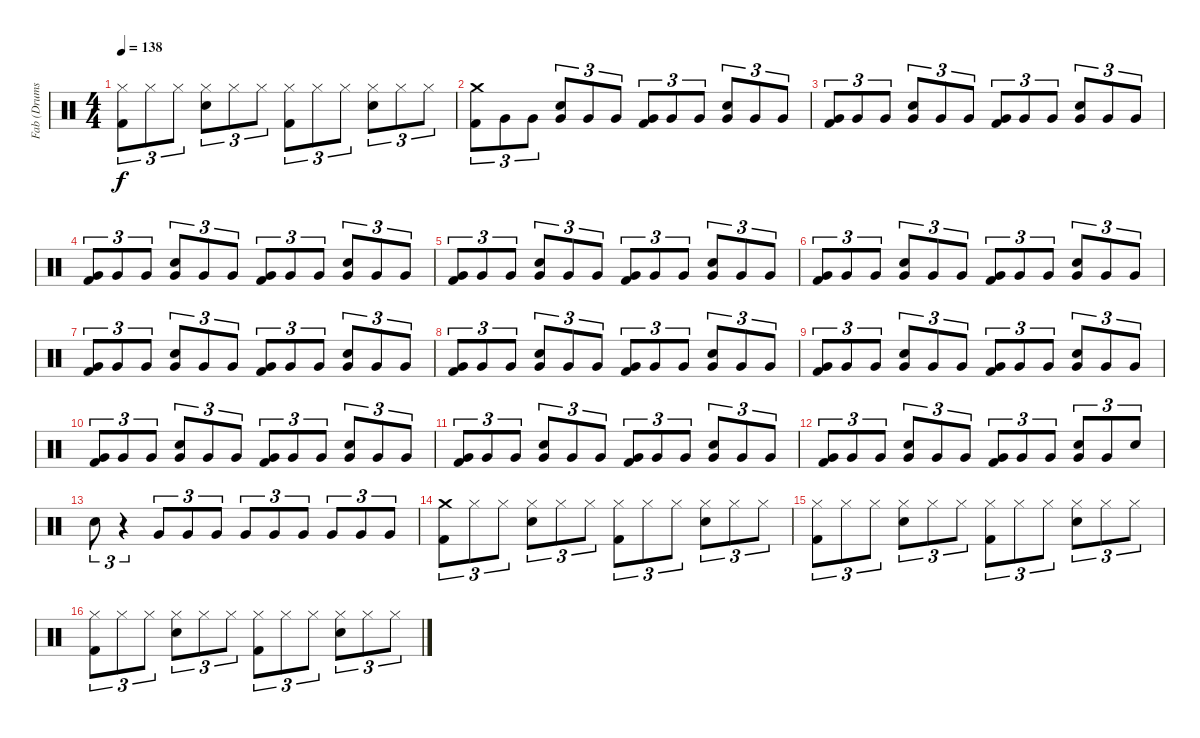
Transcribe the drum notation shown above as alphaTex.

\track ("Fab (Drums)" "Fab (Drums") {instrument percussion}
\staff {score}
\articulation defaults
\ts (4 4)
\tempo 138
\clef neutral
\ks c
("Hi-Hat (closed)" "Kick (hit) 2").8{tu (3 2) dy f} "Hi-Hat (closed)".8{tu (3 2)} "Hi-Hat (closed)".8{tu (3 2)} ("Hi-Hat (closed)" "Electric Snare (hit)").8{tu (3 2)} "Hi-Hat (closed)".8{tu (3 2)} "Hi-Hat (closed)".8{tu (3 2)} ("Hi-Hat (closed)" "Kick (hit) 2").8{tu (3 2)} "Hi-Hat (closed)".8{tu (3 2)} "Hi-Hat (closed)".8{tu (3 2)} ("Hi-Hat (closed)" "Electric Snare (hit)").8{tu (3 2)} "Hi-Hat (closed)".8{tu (3 2)} "Hi-Hat (closed)".8{tu (3 2)} |
("Crash medium (hit)" "Kick (hit) 2").8{tu (3 2)} "Very Low Tom (hit)".8{tu (3 2)} "Very Low Tom (hit)".8{tu (3 2)} ("Very Low Tom (hit)" "Electric Snare (hit)").8{tu (3 2)} "Very Low Tom (hit)".8{tu (3 2)} "Very Low Tom (hit)".8{tu (3 2)} ("Very Low Tom (hit)" "Kick (hit) 2").8{tu (3 2)} "Very Low Tom (hit)".8{tu (3 2)} "Very Low Tom (hit)".8{tu (3 2)} ("Very Low Tom (hit)" "Electric Snare (hit)").8{tu (3 2)} "Very Low Tom (hit)".8{tu (3 2)} "Very Low Tom (hit)".8{tu (3 2)} |
("Very Low Tom (hit)" "Kick (hit) 2").8{tu (3 2)} "Very Low Tom (hit)".8{tu (3 2)} "Very Low Tom (hit)".8{tu (3 2)} ("Very Low Tom (hit)" "Electric Snare (hit)").8{tu (3 2)} "Very Low Tom (hit)".8{tu (3 2)} "Very Low Tom (hit)".8{tu (3 2)} ("Very Low Tom (hit)" "Kick (hit) 2").8{tu (3 2)} "Very Low Tom (hit)".8{tu (3 2)} "Very Low Tom (hit)".8{tu (3 2)} ("Very Low Tom (hit)" "Electric Snare (hit)").8{tu (3 2)} "Very Low Tom (hit)".8{tu (3 2)} "Very Low Tom (hit)".8{tu (3 2)} |
("Very Low Tom (hit)" "Kick (hit) 2").8{tu (3 2)} "Very Low Tom (hit)".8{tu (3 2)} "Very Low Tom (hit)".8{tu (3 2)} ("Very Low Tom (hit)" "Electric Snare (hit)").8{tu (3 2)} "Very Low Tom (hit)".8{tu (3 2)} "Very Low Tom (hit)".8{tu (3 2)} ("Very Low Tom (hit)" "Kick (hit) 2").8{tu (3 2)} "Very Low Tom (hit)".8{tu (3 2)} "Very Low Tom (hit)".8{tu (3 2)} ("Very Low Tom (hit)" "Electric Snare (hit)").8{tu (3 2)} "Very Low Tom (hit)".8{tu (3 2)} "Very Low Tom (hit)".8{tu (3 2)} |
("Very Low Tom (hit)" "Kick (hit) 2").8{tu (3 2)} "Very Low Tom (hit)".8{tu (3 2)} "Very Low Tom (hit)".8{tu (3 2)} ("Very Low Tom (hit)" "Electric Snare (hit)").8{tu (3 2)} "Very Low Tom (hit)".8{tu (3 2)} "Very Low Tom (hit)".8{tu (3 2)} ("Very Low Tom (hit)" "Kick (hit) 2").8{tu (3 2)} "Very Low Tom (hit)".8{tu (3 2)} "Very Low Tom (hit)".8{tu (3 2)} ("Very Low Tom (hit)" "Electric Snare (hit)").8{tu (3 2)} "Very Low Tom (hit)".8{tu (3 2)} "Very Low Tom (hit)".8{tu (3 2)} |
("Very Low Tom (hit)" "Kick (hit) 2").8{tu (3 2)} "Very Low Tom (hit)".8{tu (3 2)} "Very Low Tom (hit)".8{tu (3 2)} ("Very Low Tom (hit)" "Electric Snare (hit)").8{tu (3 2)} "Very Low Tom (hit)".8{tu (3 2)} "Very Low Tom (hit)".8{tu (3 2)} ("Very Low Tom (hit)" "Kick (hit) 2").8{tu (3 2)} "Very Low Tom (hit)".8{tu (3 2)} "Very Low Tom (hit)".8{tu (3 2)} ("Very Low Tom (hit)" "Electric Snare (hit)").8{tu (3 2)} "Very Low Tom (hit)".8{tu (3 2)} "Very Low Tom (hit)".8{tu (3 2)} |
("Very Low Tom (hit)" "Kick (hit) 2").8{tu (3 2)} "Very Low Tom (hit)".8{tu (3 2)} "Very Low Tom (hit)".8{tu (3 2)} ("Very Low Tom (hit)" "Electric Snare (hit)").8{tu (3 2)} "Very Low Tom (hit)".8{tu (3 2)} "Very Low Tom (hit)".8{tu (3 2)} ("Very Low Tom (hit)" "Kick (hit) 2").8{tu (3 2)} "Very Low Tom (hit)".8{tu (3 2)} "Very Low Tom (hit)".8{tu (3 2)} ("Very Low Tom (hit)" "Electric Snare (hit)").8{tu (3 2)} "Very Low Tom (hit)".8{tu (3 2)} "Very Low Tom (hit)".8{tu (3 2)} |
("Very Low Tom (hit)" "Kick (hit) 2").8{tu (3 2)} "Very Low Tom (hit)".8{tu (3 2)} "Very Low Tom (hit)".8{tu (3 2)} ("Very Low Tom (hit)" "Electric Snare (hit)").8{tu (3 2)} "Very Low Tom (hit)".8{tu (3 2)} "Very Low Tom (hit)".8{tu (3 2)} ("Very Low Tom (hit)" "Kick (hit) 2").8{tu (3 2)} "Very Low Tom (hit)".8{tu (3 2)} "Very Low Tom (hit)".8{tu (3 2)} ("Very Low Tom (hit)" "Electric Snare (hit)").8{tu (3 2)} "Very Low Tom (hit)".8{tu (3 2)} "Very Low Tom (hit)".8{tu (3 2)} |
("Very Low Tom (hit)" "Kick (hit) 2").8{tu (3 2)} "Very Low Tom (hit)".8{tu (3 2)} "Very Low Tom (hit)".8{tu (3 2)} ("Very Low Tom (hit)" "Electric Snare (hit)").8{tu (3 2)} "Very Low Tom (hit)".8{tu (3 2)} "Very Low Tom (hit)".8{tu (3 2)} ("Very Low Tom (hit)" "Kick (hit) 2").8{tu (3 2)} "Very Low Tom (hit)".8{tu (3 2)} "Very Low Tom (hit)".8{tu (3 2)} ("Very Low Tom (hit)" "Electric Snare (hit)").8{tu (3 2)} "Very Low Tom (hit)".8{tu (3 2)} "Very Low Tom (hit)".8{tu (3 2)} |
("Very Low Tom (hit)" "Kick (hit) 2").8{tu (3 2)} "Very Low Tom (hit)".8{tu (3 2)} "Very Low Tom (hit)".8{tu (3 2)} ("Very Low Tom (hit)" "Electric Snare (hit)").8{tu (3 2)} "Very Low Tom (hit)".8{tu (3 2)} "Very Low Tom (hit)".8{tu (3 2)} ("Very Low Tom (hit)" "Kick (hit) 2").8{tu (3 2)} "Very Low Tom (hit)".8{tu (3 2)} "Very Low Tom (hit)".8{tu (3 2)} ("Very Low Tom (hit)" "Electric Snare (hit)").8{tu (3 2)} "Very Low Tom (hit)".8{tu (3 2)} "Very Low Tom (hit)".8{tu (3 2)} |
("Very Low Tom (hit)" "Kick (hit) 2").8{tu (3 2)} "Very Low Tom (hit)".8{tu (3 2)} "Very Low Tom (hit)".8{tu (3 2)} ("Very Low Tom (hit)" "Electric Snare (hit)").8{tu (3 2)} "Very Low Tom (hit)".8{tu (3 2)} "Very Low Tom (hit)".8{tu (3 2)} ("Very Low Tom (hit)" "Kick (hit) 2").8{tu (3 2)} "Very Low Tom (hit)".8{tu (3 2)} "Very Low Tom (hit)".8{tu (3 2)} ("Very Low Tom (hit)" "Electric Snare (hit)").8{tu (3 2)} "Very Low Tom (hit)".8{tu (3 2)} "Very Low Tom (hit)".8{tu (3 2)} |
("Very Low Tom (hit)" "Kick (hit) 2").8{tu (3 2)} "Very Low Tom (hit)".8{tu (3 2)} "Very Low Tom (hit)".8{tu (3 2)} ("Very Low Tom (hit)" "Electric Snare (hit)").8{tu (3 2)} "Very Low Tom (hit)".8{tu (3 2)} "Very Low Tom (hit)".8{tu (3 2)} ("Very Low Tom (hit)" "Kick (hit) 2").8{tu (3 2)} "Very Low Tom (hit)".8{tu (3 2)} "Very Low Tom (hit)".8{tu (3 2)} ("Very Low Tom (hit)" "Electric Snare (hit)").8{tu (3 2)} "Very Low Tom (hit)".8{tu (3 2)} "Electric Snare (hit)".8{tu (3 2)} |
"Electric Snare (hit)".8{tu (3 2)} r.4{tu (3 2)} "Very Low Tom (hit)".8{tu (3 2)} "Very Low Tom (hit)".8{tu (3 2)} "Very Low Tom (hit)".8{tu (3 2)} "Very Low Tom (hit)".8{tu (3 2)} "Very Low Tom (hit)".8{tu (3 2)} "Very Low Tom (hit)".8{tu (3 2)} "Very Low Tom (hit)".8{tu (3 2)} "Very Low Tom (hit)".8{tu (3 2)} "Very Low Tom (hit)".8{tu (3 2)} |
("Crash medium (hit)" "Kick (hit) 2").8{tu (3 2)} "Hi-Hat (closed)".8{tu (3 2)} "Hi-Hat (closed)".8{tu (3 2)} ("Hi-Hat (closed)" "Electric Snare (hit)").8{tu (3 2)} "Hi-Hat (closed)".8{tu (3 2)} "Hi-Hat (closed)".8{tu (3 2)} ("Hi-Hat (closed)" "Kick (hit) 2").8{tu (3 2)} "Hi-Hat (closed)".8{tu (3 2)} "Hi-Hat (closed)".8{tu (3 2)} ("Hi-Hat (closed)" "Electric Snare (hit)").8{tu (3 2)} "Hi-Hat (closed)".8{tu (3 2)} "Hi-Hat (closed)".8{tu (3 2)} |
("Hi-Hat (closed)" "Kick (hit) 2").8{tu (3 2)} "Hi-Hat (closed)".8{tu (3 2)} "Hi-Hat (closed)".8{tu (3 2)} ("Hi-Hat (closed)" "Electric Snare (hit)").8{tu (3 2)} "Hi-Hat (closed)".8{tu (3 2)} "Hi-Hat (closed)".8{tu (3 2)} ("Hi-Hat (closed)" "Kick (hit) 2").8{tu (3 2)} "Hi-Hat (closed)".8{tu (3 2)} "Hi-Hat (closed)".8{tu (3 2)} ("Hi-Hat (closed)" "Electric Snare (hit)").8{tu (3 2)} "Hi-Hat (closed)".8{tu (3 2)} "Hi-Hat (closed)".8{tu (3 2)} |
("Hi-Hat (closed)" "Kick (hit) 2").8{tu (3 2)} "Hi-Hat (closed)".8{tu (3 2)} "Hi-Hat (closed)".8{tu (3 2)} ("Hi-Hat (closed)" "Electric Snare (hit)").8{tu (3 2)} "Hi-Hat (closed)".8{tu (3 2)} "Hi-Hat (closed)".8{tu (3 2)} ("Hi-Hat (closed)" "Kick (hit) 2").8{tu (3 2)} "Hi-Hat (closed)".8{tu (3 2)} "Hi-Hat (closed)".8{tu (3 2)} ("Hi-Hat (closed)" "Electric Snare (hit)").8{tu (3 2)} "Hi-Hat (closed)".8{tu (3 2)} "Hi-Hat (closed)".8{tu (3 2)}
